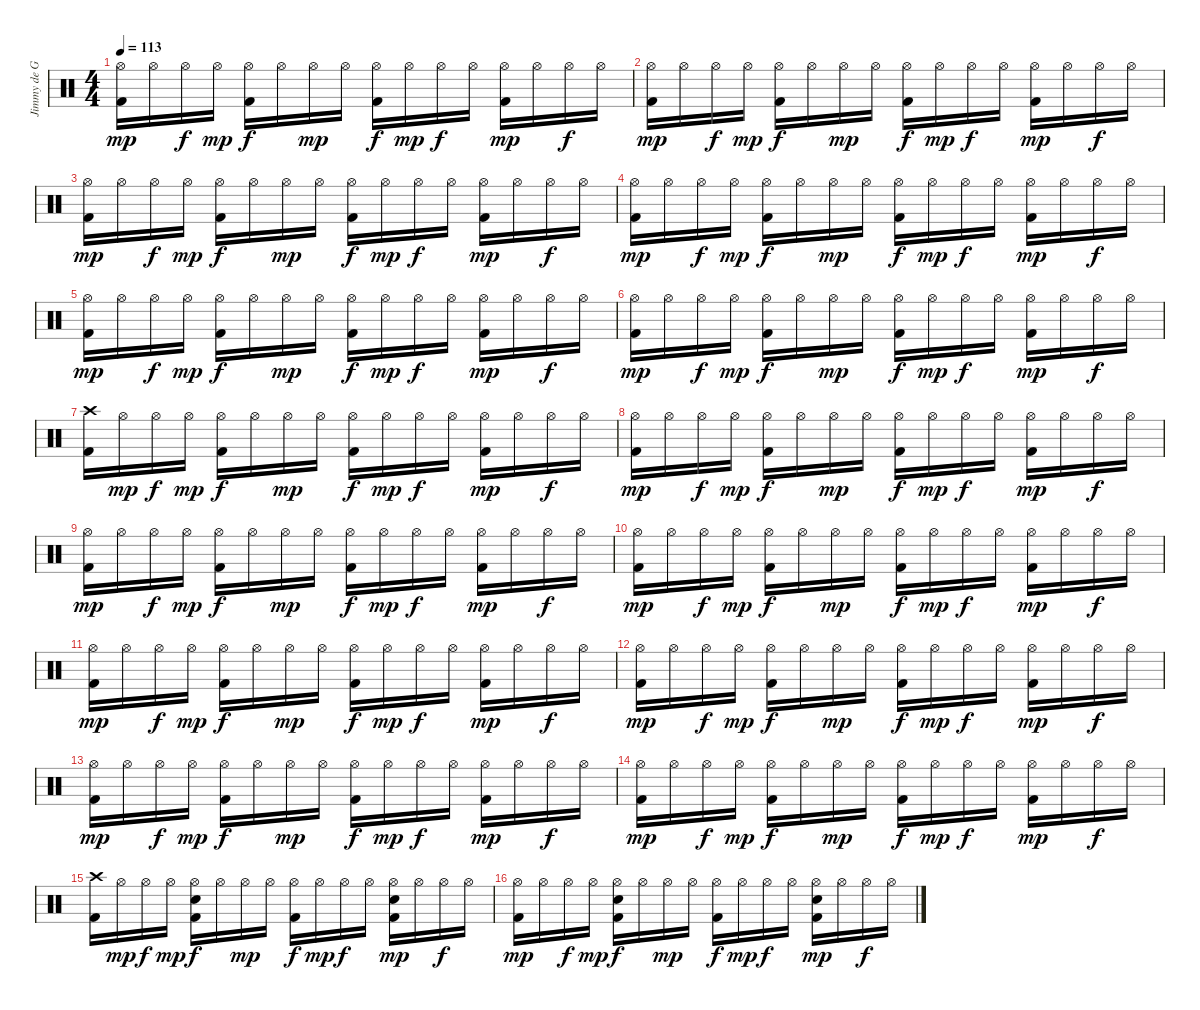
\track ("Jimmy de Grasso" "Jimmy de G") {instrument percussion}
\staff {score}
\articulation defaults
\ts (4 4)
\tempo 113
\clef neutral
\ks c
("Hi-Hat (open)" "Kick (hit) 2").16{dy mp} "Hi-Hat (open)".16 "Hi-Hat (open)".16{dy f} "Hi-Hat (open)".16{dy mp} ("Hi-Hat (open)" "Kick (hit) 2").16{dy f} "Hi-Hat (open)".16 "Hi-Hat (open)".16{dy mp} "Hi-Hat (open)".16 ("Hi-Hat (open)" "Kick (hit) 2").16{dy f} "Hi-Hat (open)".16{dy mp} "Hi-Hat (open)".16{dy f} "Hi-Hat (open)".16 ("Hi-Hat (open)" "Kick (hit) 2").16{dy mp} "Hi-Hat (open)".16 "Hi-Hat (open)".16{dy f} "Hi-Hat (open)".16 |
("Hi-Hat (open)" "Kick (hit) 2").16{dy mp} "Hi-Hat (open)".16 "Hi-Hat (open)".16{dy f} "Hi-Hat (open)".16{dy mp} ("Hi-Hat (open)" "Kick (hit) 2").16{dy f} "Hi-Hat (open)".16 "Hi-Hat (open)".16{dy mp} "Hi-Hat (open)".16 ("Hi-Hat (open)" "Kick (hit) 2").16{dy f} "Hi-Hat (open)".16{dy mp} "Hi-Hat (open)".16{dy f} "Hi-Hat (open)".16 ("Hi-Hat (open)" "Kick (hit) 2").16{dy mp} "Hi-Hat (open)".16 "Hi-Hat (open)".16{dy f} "Hi-Hat (open)".16 |
("Hi-Hat (open)" "Kick (hit) 2").16{dy mp} "Hi-Hat (open)".16 "Hi-Hat (open)".16{dy f} "Hi-Hat (open)".16{dy mp} ("Hi-Hat (open)" "Kick (hit) 2").16{dy f} "Hi-Hat (open)".16 "Hi-Hat (open)".16{dy mp} "Hi-Hat (open)".16 ("Hi-Hat (open)" "Kick (hit) 2").16{dy f} "Hi-Hat (open)".16{dy mp} "Hi-Hat (open)".16{dy f} "Hi-Hat (open)".16 ("Hi-Hat (open)" "Kick (hit) 2").16{dy mp} "Hi-Hat (open)".16 "Hi-Hat (open)".16{dy f} "Hi-Hat (open)".16 |
("Hi-Hat (open)" "Kick (hit) 2").16{dy mp} "Hi-Hat (open)".16 "Hi-Hat (open)".16{dy f} "Hi-Hat (open)".16{dy mp} ("Hi-Hat (open)" "Kick (hit) 2").16{dy f} "Hi-Hat (open)".16 "Hi-Hat (open)".16{dy mp} "Hi-Hat (open)".16 ("Hi-Hat (open)" "Kick (hit) 2").16{dy f} "Hi-Hat (open)".16{dy mp} "Hi-Hat (open)".16{dy f} "Hi-Hat (open)".16 ("Hi-Hat (open)" "Kick (hit) 2").16{dy mp} "Hi-Hat (open)".16 "Hi-Hat (open)".16{dy f} "Hi-Hat (open)".16 |
("Hi-Hat (open)" "Kick (hit) 2").16{dy mp} "Hi-Hat (open)".16 "Hi-Hat (open)".16{dy f} "Hi-Hat (open)".16{dy mp} ("Hi-Hat (open)" "Kick (hit) 2").16{dy f} "Hi-Hat (open)".16 "Hi-Hat (open)".16{dy mp} "Hi-Hat (open)".16 ("Hi-Hat (open)" "Kick (hit) 2").16{dy f} "Hi-Hat (open)".16{dy mp} "Hi-Hat (open)".16{dy f} "Hi-Hat (open)".16 ("Hi-Hat (open)" "Kick (hit) 2").16{dy mp} "Hi-Hat (open)".16 "Hi-Hat (open)".16{dy f} "Hi-Hat (open)".16 |
("Hi-Hat (open)" "Kick (hit) 2").16{dy mp} "Hi-Hat (open)".16 "Hi-Hat (open)".16{dy f} "Hi-Hat (open)".16{dy mp} ("Hi-Hat (open)" "Kick (hit) 2").16{dy f} "Hi-Hat (open)".16 "Hi-Hat (open)".16{dy mp} "Hi-Hat (open)".16 ("Hi-Hat (open)" "Kick (hit) 2").16{dy f} "Hi-Hat (open)".16{dy mp} "Hi-Hat (open)".16{dy f} "Hi-Hat (open)".16 ("Hi-Hat (open)" "Kick (hit) 2").16{dy mp} "Hi-Hat (open)".16 "Hi-Hat (open)".16{dy f} "Hi-Hat (open)".16 |
("Crash high (hit)" "Kick (hit) 2").16 "Hi-Hat (open)".16{dy mp} "Hi-Hat (open)".16{dy f} "Hi-Hat (open)".16{dy mp} ("Hi-Hat (open)" "Kick (hit) 2").16{dy f} "Hi-Hat (open)".16 "Hi-Hat (open)".16{dy mp} "Hi-Hat (open)".16 ("Hi-Hat (open)" "Kick (hit) 2").16{dy f} "Hi-Hat (open)".16{dy mp} "Hi-Hat (open)".16{dy f} "Hi-Hat (open)".16 ("Hi-Hat (open)" "Kick (hit) 2").16{dy mp} "Hi-Hat (open)".16 "Hi-Hat (open)".16{dy f} "Hi-Hat (open)".16 |
("Hi-Hat (open)" "Kick (hit) 2").16{dy mp} "Hi-Hat (open)".16 "Hi-Hat (open)".16{dy f} "Hi-Hat (open)".16{dy mp} ("Hi-Hat (open)" "Kick (hit) 2").16{dy f} "Hi-Hat (open)".16 "Hi-Hat (open)".16{dy mp} "Hi-Hat (open)".16 ("Hi-Hat (open)" "Kick (hit) 2").16{dy f} "Hi-Hat (open)".16{dy mp} "Hi-Hat (open)".16{dy f} "Hi-Hat (open)".16 ("Hi-Hat (open)" "Kick (hit) 2").16{dy mp} "Hi-Hat (open)".16 "Hi-Hat (open)".16{dy f} "Hi-Hat (open)".16 |
("Hi-Hat (open)" "Kick (hit) 2").16{dy mp} "Hi-Hat (open)".16 "Hi-Hat (open)".16{dy f} "Hi-Hat (open)".16{dy mp} ("Hi-Hat (open)" "Kick (hit) 2").16{dy f} "Hi-Hat (open)".16 "Hi-Hat (open)".16{dy mp} "Hi-Hat (open)".16 ("Hi-Hat (open)" "Kick (hit) 2").16{dy f} "Hi-Hat (open)".16{dy mp} "Hi-Hat (open)".16{dy f} "Hi-Hat (open)".16 ("Hi-Hat (open)" "Kick (hit) 2").16{dy mp} "Hi-Hat (open)".16 "Hi-Hat (open)".16{dy f} "Hi-Hat (open)".16 |
("Hi-Hat (open)" "Kick (hit) 2").16{dy mp} "Hi-Hat (open)".16 "Hi-Hat (open)".16{dy f} "Hi-Hat (open)".16{dy mp} ("Hi-Hat (open)" "Kick (hit) 2").16{dy f} "Hi-Hat (open)".16 "Hi-Hat (open)".16{dy mp} "Hi-Hat (open)".16 ("Hi-Hat (open)" "Kick (hit) 2").16{dy f} "Hi-Hat (open)".16{dy mp} "Hi-Hat (open)".16{dy f} "Hi-Hat (open)".16 ("Hi-Hat (open)" "Kick (hit) 2").16{dy mp} "Hi-Hat (open)".16 "Hi-Hat (open)".16{dy f} "Hi-Hat (open)".16 |
("Hi-Hat (open)" "Kick (hit) 2").16{dy mp} "Hi-Hat (open)".16 "Hi-Hat (open)".16{dy f} "Hi-Hat (open)".16{dy mp} ("Hi-Hat (open)" "Kick (hit) 2").16{dy f} "Hi-Hat (open)".16 "Hi-Hat (open)".16{dy mp} "Hi-Hat (open)".16 ("Hi-Hat (open)" "Kick (hit) 2").16{dy f} "Hi-Hat (open)".16{dy mp} "Hi-Hat (open)".16{dy f} "Hi-Hat (open)".16 ("Hi-Hat (open)" "Kick (hit) 2").16{dy mp} "Hi-Hat (open)".16 "Hi-Hat (open)".16{dy f} "Hi-Hat (open)".16 |
("Hi-Hat (open)" "Kick (hit) 2").16{dy mp} "Hi-Hat (open)".16 "Hi-Hat (open)".16{dy f} "Hi-Hat (open)".16{dy mp} ("Hi-Hat (open)" "Kick (hit) 2").16{dy f} "Hi-Hat (open)".16 "Hi-Hat (open)".16{dy mp} "Hi-Hat (open)".16 ("Hi-Hat (open)" "Kick (hit) 2").16{dy f} "Hi-Hat (open)".16{dy mp} "Hi-Hat (open)".16{dy f} "Hi-Hat (open)".16 ("Hi-Hat (open)" "Kick (hit) 2").16{dy mp} "Hi-Hat (open)".16 "Hi-Hat (open)".16{dy f} "Hi-Hat (open)".16 |
("Hi-Hat (open)" "Kick (hit) 2").16{dy mp} "Hi-Hat (open)".16 "Hi-Hat (open)".16{dy f} "Hi-Hat (open)".16{dy mp} ("Hi-Hat (open)" "Kick (hit) 2").16{dy f} "Hi-Hat (open)".16 "Hi-Hat (open)".16{dy mp} "Hi-Hat (open)".16 ("Hi-Hat (open)" "Kick (hit) 2").16{dy f} "Hi-Hat (open)".16{dy mp} "Hi-Hat (open)".16{dy f} "Hi-Hat (open)".16 ("Hi-Hat (open)" "Kick (hit) 2").16{dy mp} "Hi-Hat (open)".16 "Hi-Hat (open)".16{dy f} "Hi-Hat (open)".16 |
("Hi-Hat (open)" "Kick (hit) 2").16{dy mp} "Hi-Hat (open)".16 "Hi-Hat (open)".16{dy f} "Hi-Hat (open)".16{dy mp} ("Hi-Hat (open)" "Kick (hit) 2").16{dy f} "Hi-Hat (open)".16 "Hi-Hat (open)".16{dy mp} "Hi-Hat (open)".16 ("Hi-Hat (open)" "Kick (hit) 2").16{dy f} "Hi-Hat (open)".16{dy mp} "Hi-Hat (open)".16{dy f} "Hi-Hat (open)".16 ("Hi-Hat (open)" "Kick (hit) 2").16{dy mp} "Hi-Hat (open)".16 "Hi-Hat (open)".16{dy f} "Hi-Hat (open)".16 |
("Crash high (hit)" "Kick (hit) 2").16 "Hi-Hat (open)".16{dy mp} "Hi-Hat (open)".16{dy f} "Hi-Hat (open)".16{dy mp} ("Hi-Hat (open)" "Snare (hit) 2" "Kick (hit) 2").16{dy f} "Hi-Hat (open)".16 "Hi-Hat (open)".16{dy mp} "Hi-Hat (open)".16 ("Hi-Hat (open)" "Kick (hit) 2").16{dy f} "Hi-Hat (open)".16{dy mp} "Hi-Hat (open)".16{dy f} "Hi-Hat (open)".16 ("Hi-Hat (open)" "Snare (hit) 2" "Kick (hit) 2").16{dy mp} "Hi-Hat (open)".16 "Hi-Hat (open)".16{dy f} "Hi-Hat (open)".16 |
("Hi-Hat (open)" "Kick (hit) 2").16{dy mp} "Hi-Hat (open)".16 "Hi-Hat (open)".16{dy f} "Hi-Hat (open)".16{dy mp} ("Hi-Hat (open)" "Snare (hit) 2" "Kick (hit) 2").16{dy f} "Hi-Hat (open)".16 "Hi-Hat (open)".16{dy mp} "Hi-Hat (open)".16 ("Hi-Hat (open)" "Kick (hit) 2").16{dy f} "Hi-Hat (open)".16{dy mp} "Hi-Hat (open)".16{dy f} "Hi-Hat (open)".16 ("Hi-Hat (open)" "Snare (hit) 2" "Kick (hit) 2").16{dy mp} "Hi-Hat (open)".16 "Hi-Hat (open)".16{dy f} "Hi-Hat (open)".16
